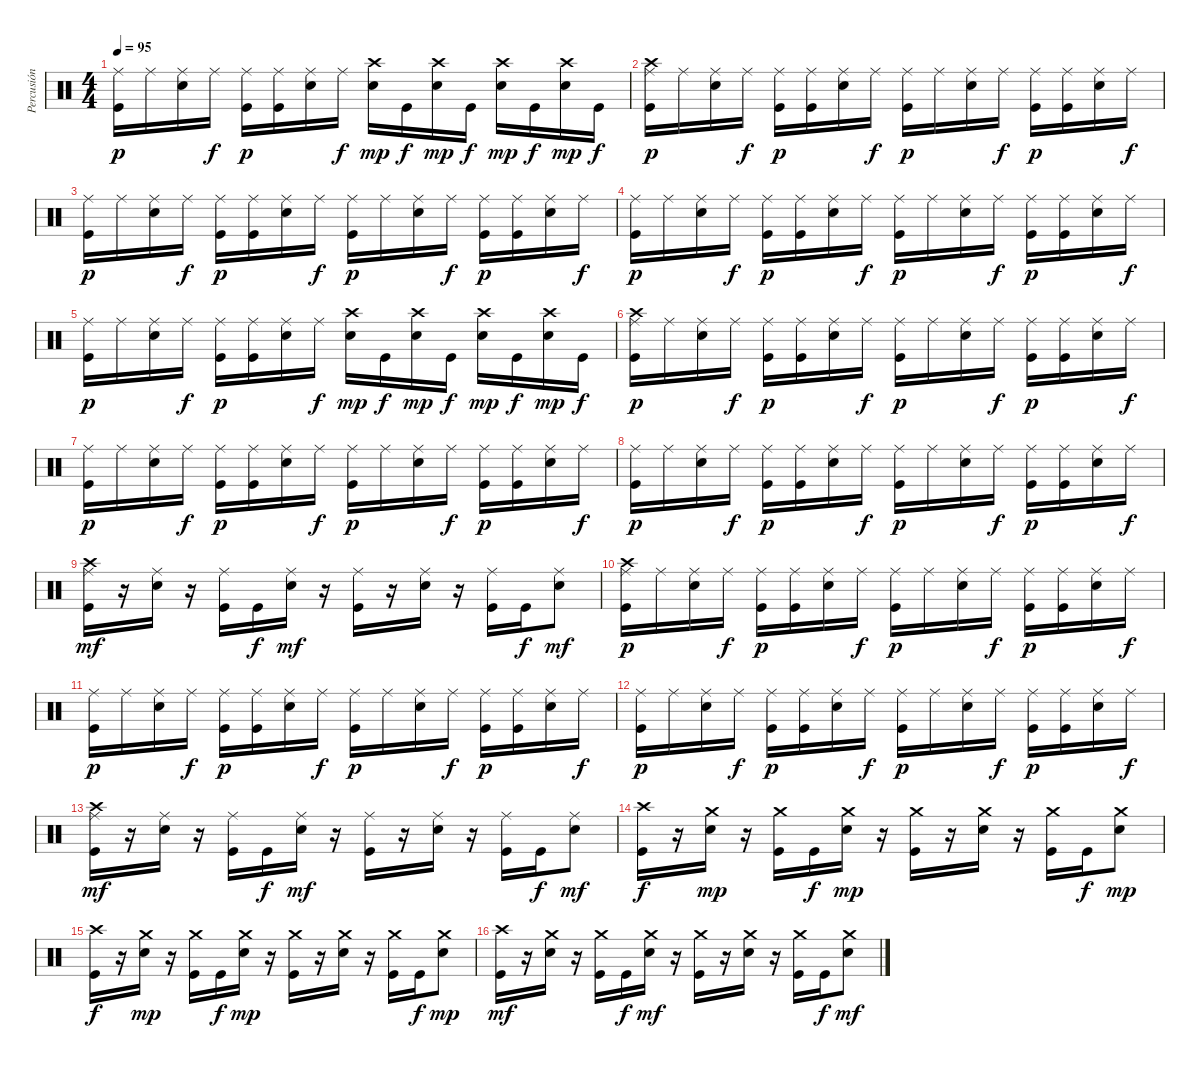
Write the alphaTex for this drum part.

\track ("Percusión" "Percusión") {instrument percussion}
\staff {score}
\articulation defaults
\ts (4 4)
\tempo 95
\clef neutral
\ks c
("Ride (middle)" "Kick (hit)").16{dy p} "Ride (middle)".16 ("Ride (middle)" "Snare (hit) 2").16 "Ride (middle)".16{dy f} ("Ride (middle)" "Kick (hit)").16{dy p} ("Ride (middle)" "Kick (hit)").16 ("Ride (middle)" "Snare (hit) 2").16 "Ride (middle)".16{dy f} ("Snare (hit) 2" "Crash high (hit)").16{dy mp} "Kick (hit)".16{dy f} ("Snare (hit) 2" "Crash high (hit)").16{dy mp} "Kick (hit)".16{dy f} ("Snare (hit) 2" "Crash high (hit)").16{dy mp} "Kick (hit)".16{dy f} ("Snare (hit) 2" "Crash high (hit)").16{dy mp} "Kick (hit)".16{dy f} |
("Ride (middle)" "Kick (hit)" "Crash high (hit)").16{dy p} "Ride (middle)".16 ("Ride (middle)" "Snare (hit) 2").16 "Ride (middle)".16{dy f} ("Ride (middle)" "Kick (hit)").16{dy p} ("Ride (middle)" "Kick (hit)").16 ("Ride (middle)" "Snare (hit) 2").16 "Ride (middle)".16{dy f} ("Ride (middle)" "Kick (hit)").16{dy p} "Ride (middle)".16 ("Ride (middle)" "Snare (hit) 2").16 "Ride (middle)".16{dy f} ("Ride (middle)" "Kick (hit)").16{dy p} ("Ride (middle)" "Kick (hit)").16 ("Ride (middle)" "Snare (hit) 2").16 "Ride (middle)".16{dy f} |
("Ride (middle)" "Kick (hit)").16{dy p} "Ride (middle)".16 ("Ride (middle)" "Snare (hit) 2").16 "Ride (middle)".16{dy f} ("Ride (middle)" "Kick (hit)").16{dy p} ("Ride (middle)" "Kick (hit)").16 ("Ride (middle)" "Snare (hit) 2").16 "Ride (middle)".16{dy f} ("Ride (middle)" "Kick (hit)").16{dy p} "Ride (middle)".16 ("Ride (middle)" "Snare (hit) 2").16 "Ride (middle)".16{dy f} ("Ride (middle)" "Kick (hit)").16{dy p} ("Ride (middle)" "Kick (hit)").16 ("Ride (middle)" "Snare (hit) 2").16 "Ride (middle)".16{dy f} |
("Ride (middle)" "Kick (hit)").16{dy p} "Ride (middle)".16 ("Ride (middle)" "Snare (hit) 2").16 "Ride (middle)".16{dy f} ("Ride (middle)" "Kick (hit)").16{dy p} ("Ride (middle)" "Kick (hit)").16 ("Ride (middle)" "Snare (hit) 2").16 "Ride (middle)".16{dy f} ("Ride (middle)" "Kick (hit)").16{dy p} "Ride (middle)".16 ("Ride (middle)" "Snare (hit) 2").16 "Ride (middle)".16{dy f} ("Ride (middle)" "Kick (hit)").16{dy p} ("Ride (middle)" "Kick (hit)").16 ("Ride (middle)" "Snare (hit) 2").16 "Ride (middle)".16{dy f} |
("Ride (middle)" "Kick (hit)").16{dy p} "Ride (middle)".16 ("Ride (middle)" "Snare (hit) 2").16 "Ride (middle)".16{dy f} ("Ride (middle)" "Kick (hit)").16{dy p} ("Ride (middle)" "Kick (hit)").16 ("Ride (middle)" "Snare (hit) 2").16 "Ride (middle)".16{dy f} ("Snare (hit) 2" "Crash high (hit)").16{dy mp} "Kick (hit)".16{dy f} ("Snare (hit) 2" "Crash high (hit)").16{dy mp} "Kick (hit)".16{dy f} ("Snare (hit) 2" "Crash high (hit)").16{dy mp} "Kick (hit)".16{dy f} ("Snare (hit) 2" "Crash high (hit)").16{dy mp} "Kick (hit)".16{dy f} |
("Ride (middle)" "Kick (hit)" "Crash high (hit)").16{dy p} "Ride (middle)".16 ("Ride (middle)" "Snare (hit) 2").16 "Ride (middle)".16{dy f} ("Ride (middle)" "Kick (hit)").16{dy p} ("Ride (middle)" "Kick (hit)").16 ("Ride (middle)" "Snare (hit) 2").16 "Ride (middle)".16{dy f} ("Ride (middle)" "Kick (hit)").16{dy p} "Ride (middle)".16 ("Ride (middle)" "Snare (hit) 2").16 "Ride (middle)".16{dy f} ("Ride (middle)" "Kick (hit)").16{dy p} ("Ride (middle)" "Kick (hit)").16 ("Ride (middle)" "Snare (hit) 2").16 "Ride (middle)".16{dy f} |
("Ride (middle)" "Kick (hit)").16{dy p} "Ride (middle)".16 ("Ride (middle)" "Snare (hit) 2").16 "Ride (middle)".16{dy f} ("Ride (middle)" "Kick (hit)").16{dy p} ("Ride (middle)" "Kick (hit)").16 ("Ride (middle)" "Snare (hit) 2").16 "Ride (middle)".16{dy f} ("Ride (middle)" "Kick (hit)").16{dy p} "Ride (middle)".16 ("Ride (middle)" "Snare (hit) 2").16 "Ride (middle)".16{dy f} ("Ride (middle)" "Kick (hit)").16{dy p} ("Ride (middle)" "Kick (hit)").16 ("Ride (middle)" "Snare (hit) 2").16 "Ride (middle)".16{dy f} |
("Ride (middle)" "Kick (hit)").16{dy p} "Ride (middle)".16 ("Ride (middle)" "Snare (hit) 2").16 "Ride (middle)".16{dy f} ("Ride (middle)" "Kick (hit)").16{dy p} ("Ride (middle)" "Kick (hit)").16 ("Ride (middle)" "Snare (hit) 2").16 "Ride (middle)".16{dy f} ("Ride (middle)" "Kick (hit)").16{dy p} "Ride (middle)".16 ("Ride (middle)" "Snare (hit) 2").16 "Ride (middle)".16{dy f} ("Ride (middle)" "Kick (hit)").16{dy p} ("Ride (middle)" "Kick (hit)").16 ("Ride (middle)" "Snare (hit) 2").16 "Ride (middle)".16{dy f} |
("Ride (middle)" "Kick (hit)" "Crash high (hit)").16{dy mf} r.16 ("Ride (middle)" "Snare (hit) 2").16 r.16 ("Ride (middle)" "Kick (hit)").16 "Kick (hit)".16{dy f} ("Ride (middle)" "Snare (hit) 2").16{dy mf} r.16 ("Ride (middle)" "Kick (hit)").16 r.16 ("Ride (middle)" "Snare (hit) 2").16 r.16 ("Ride (middle)" "Kick (hit)").16 "Kick (hit)".16{dy f} ("Ride (middle)" "Snare (hit) 2").8{dy mf} |
("Ride (middle)" "Kick (hit)" "Crash high (hit)").16{dy p} "Ride (middle)".16 ("Ride (middle)" "Snare (hit) 2").16 "Ride (middle)".16{dy f} ("Ride (middle)" "Kick (hit)").16{dy p} ("Ride (middle)" "Kick (hit)").16 ("Ride (middle)" "Snare (hit) 2").16 "Ride (middle)".16{dy f} ("Ride (middle)" "Kick (hit)").16{dy p} "Ride (middle)".16 ("Ride (middle)" "Snare (hit) 2").16 "Ride (middle)".16{dy f} ("Ride (middle)" "Kick (hit)").16{dy p} ("Ride (middle)" "Kick (hit)").16 ("Ride (middle)" "Snare (hit) 2").16 "Ride (middle)".16{dy f} |
("Ride (middle)" "Kick (hit)").16{dy p} "Ride (middle)".16 ("Ride (middle)" "Snare (hit) 2").16 "Ride (middle)".16{dy f} ("Ride (middle)" "Kick (hit)").16{dy p} ("Ride (middle)" "Kick (hit)").16 ("Ride (middle)" "Snare (hit) 2").16 "Ride (middle)".16{dy f} ("Ride (middle)" "Kick (hit)").16{dy p} "Ride (middle)".16 ("Ride (middle)" "Snare (hit) 2").16 "Ride (middle)".16{dy f} ("Ride (middle)" "Kick (hit)").16{dy p} ("Ride (middle)" "Kick (hit)").16 ("Ride (middle)" "Snare (hit) 2").16 "Ride (middle)".16{dy f} |
("Ride (middle)" "Kick (hit)").16{dy p} "Ride (middle)".16 ("Ride (middle)" "Snare (hit) 2").16 "Ride (middle)".16{dy f} ("Ride (middle)" "Kick (hit)").16{dy p} ("Ride (middle)" "Kick (hit)").16 ("Ride (middle)" "Snare (hit) 2").16 "Ride (middle)".16{dy f} ("Ride (middle)" "Kick (hit)").16{dy p} "Ride (middle)".16 ("Ride (middle)" "Snare (hit) 2").16 "Ride (middle)".16{dy f} ("Ride (middle)" "Kick (hit)").16{dy p} ("Ride (middle)" "Kick (hit)").16 ("Ride (middle)" "Snare (hit) 2").16 "Ride (middle)".16{dy f} |
("Ride (middle)" "Kick (hit)" "Crash high (hit)").16{dy mf} r.16 ("Ride (middle)" "Snare (hit) 2").16 r.16 ("Ride (middle)" "Kick (hit)").16 "Kick (hit)".16{dy f} ("Ride (middle)" "Snare (hit) 2").16{dy mf} r.16 ("Ride (middle)" "Kick (hit)").16 r.16 ("Ride (middle)" "Snare (hit) 2").16 r.16 ("Ride (middle)" "Kick (hit)").16 "Kick (hit)".16{dy f} ("Ride (middle)" "Snare (hit) 2").8{dy mf} |
("Kick (hit)" "Crash high (hit)").16{dy f} r.16 ("Snare (hit) 2" "Crash medium (hit)").16{dy mp} r.16 ("Kick (hit)" "Crash medium (hit)").16 "Kick (hit)".16{dy f} ("Snare (hit) 2" "Crash medium (hit)").16{dy mp} r.16 ("Kick (hit)" "Crash medium (hit)").16 r.16 ("Snare (hit) 2" "Crash medium (hit)").16 r.16 ("Kick (hit)" "Crash medium (hit)").16 "Kick (hit)".16{dy f} ("Snare (hit) 2" "Crash medium (hit)").8{dy mp} |
("Kick (hit)" "Crash high (hit)").16{dy f} r.16 ("Snare (hit) 2" "Crash medium (hit)").16{dy mp} r.16 ("Kick (hit)" "Crash medium (hit)").16 "Kick (hit)".16{dy f} ("Snare (hit) 2" "Crash medium (hit)").16{dy mp} r.16 ("Kick (hit)" "Crash medium (hit)").16 r.16 ("Snare (hit) 2" "Crash medium (hit)").16 r.16 ("Kick (hit)" "Crash medium (hit)").16 "Kick (hit)".16{dy f} ("Snare (hit) 2" "Crash medium (hit)").8{dy mp} |
("Kick (hit)" "Crash high (hit)").16{dy mf} r.16 ("Snare (hit) 2" "Crash medium (hit)").16 r.16 ("Kick (hit)" "Crash medium (hit)").16 "Kick (hit)".16{dy f} ("Snare (hit) 2" "Crash medium (hit)").16{dy mf} r.16 ("Kick (hit)" "Crash medium (hit)").16 r.16 ("Snare (hit) 2" "Crash medium (hit)").16 r.16 ("Kick (hit)" "Crash medium (hit)").16 "Kick (hit)".16{dy f} ("Snare (hit) 2" "Crash medium (hit)").8{dy mf}
